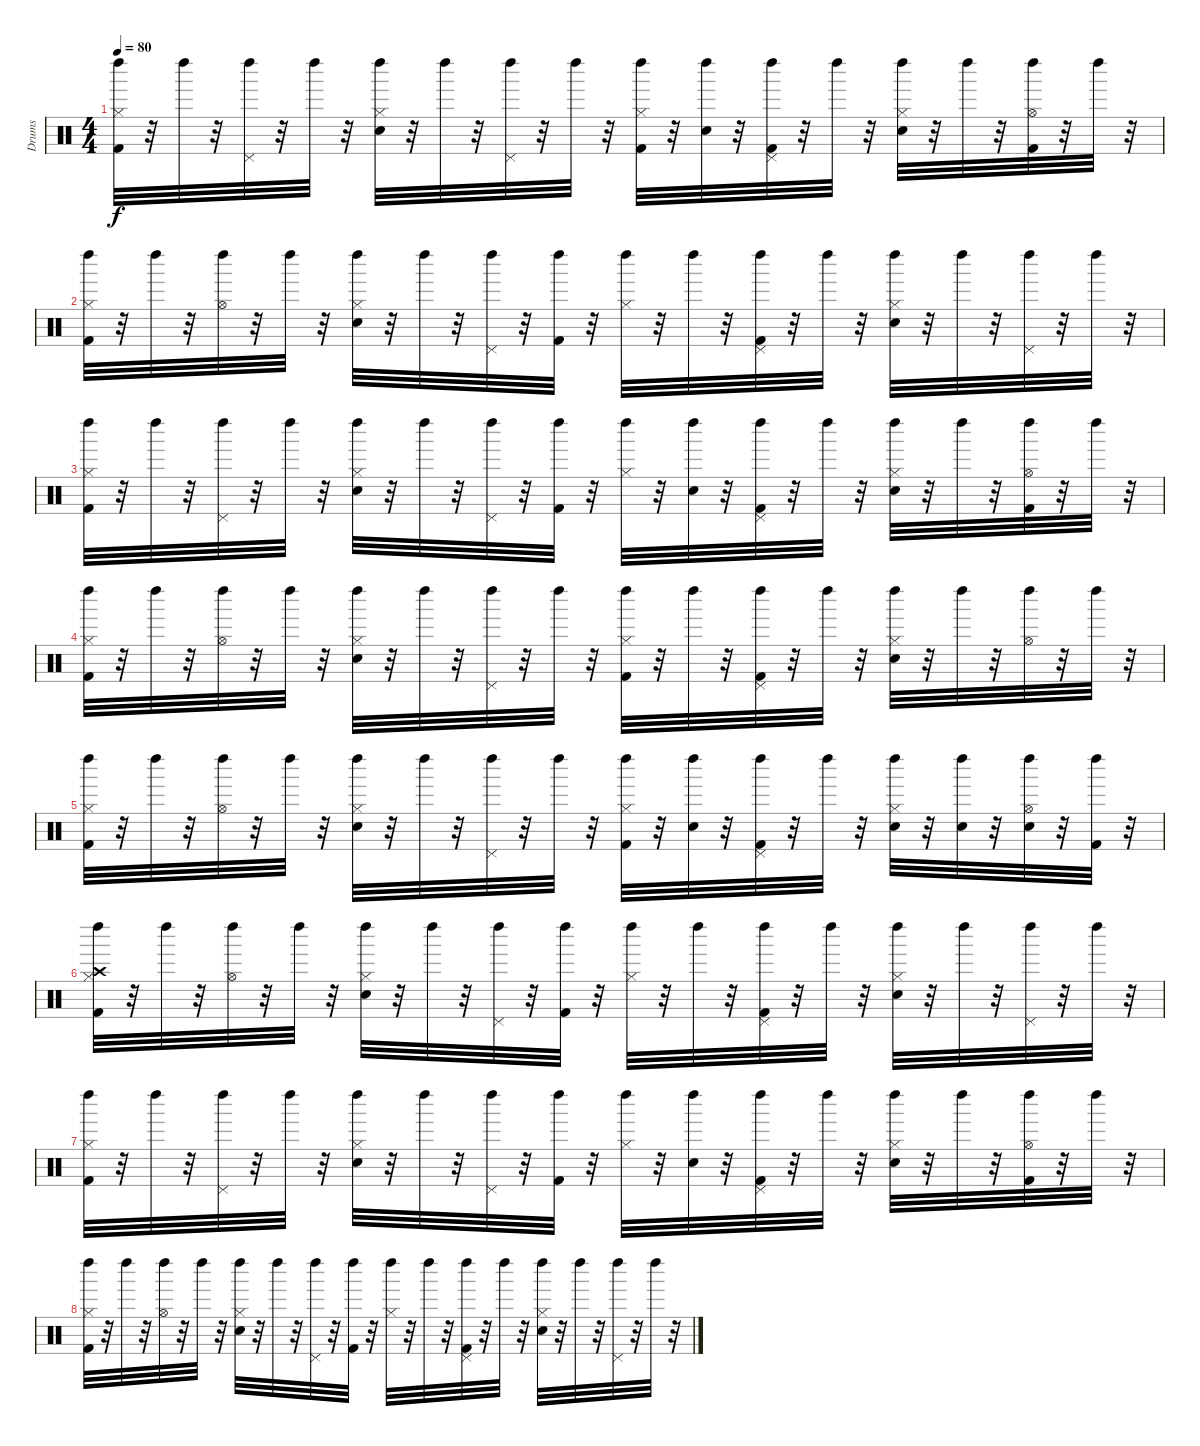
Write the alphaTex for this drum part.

\track ("Drums" "Drums") {instrument percussion}
\staff {score}
\articulation defaults
\ts (4 4)
\tempo 80
\clef neutral
\ks c
("Left Maraca (hit)" "Kick (hit) 2" "Hi-Hat (closed)").32{dy f} r.32 "Left Maraca (hit)".32 r.32 ("Left Maraca (hit)" "Pedal Hi-Hat (hit)").32 r.32 "Left Maraca (hit)".32 r.32 ("Left Maraca (hit)" "Snare (hit) 2" "Hi-Hat (closed)").32 r.32 "Left Maraca (hit)".32 r.32 ("Left Maraca (hit)" "Pedal Hi-Hat (hit)").32 r.32 "Left Maraca (hit)".32 r.32 ("Left Maraca (hit)" "Kick (hit) 2" "Hi-Hat (closed)").32 r.32 ("Left Maraca (hit)" "Snare (hit) 2").32 r.32 ("Left Maraca (hit)" "Kick (hit) 2" "Pedal Hi-Hat (hit)").32 r.32 "Left Maraca (hit)".32 r.32 ("Left Maraca (hit)" "Snare (hit) 2" "Hi-Hat (closed)").32 r.32 "Left Maraca (hit)".32 r.32 ("Left Maraca (hit)" "Hi-Hat (open)" "Kick (hit) 2").32 r.32 "Left Maraca (hit)".32 r.32 |
("Left Maraca (hit)" "Kick (hit) 2" "Hi-Hat (closed)").32 r.32 "Left Maraca (hit)".32 r.32 ("Left Maraca (hit)" "Hi-Hat (open)").32 r.32 "Left Maraca (hit)".32 r.32 ("Left Maraca (hit)" "Snare (hit) 2" "Hi-Hat (closed)").32 r.32 "Left Maraca (hit)".32 r.32 ("Left Maraca (hit)" "Pedal Hi-Hat (hit)").32 r.32 ("Left Maraca (hit)" "Kick (hit) 2").32 r.32 ("Left Maraca (hit)" "Hi-Hat (closed)").32 r.32 "Left Maraca (hit)".32 r.32 ("Left Maraca (hit)" "Kick (hit) 2" "Pedal Hi-Hat (hit)").32 r.32 "Left Maraca (hit)".32 r.32 ("Left Maraca (hit)" "Snare (hit) 2" "Hi-Hat (closed)").32 r.32 "Left Maraca (hit)".32 r.32 ("Left Maraca (hit)" "Pedal Hi-Hat (hit)").32 r.32 "Left Maraca (hit)".32 r.32 |
("Left Maraca (hit)" "Kick (hit) 2" "Hi-Hat (closed)").32 r.32 "Left Maraca (hit)".32 r.32 ("Left Maraca (hit)" "Pedal Hi-Hat (hit)").32 r.32 "Left Maraca (hit)".32 r.32 ("Left Maraca (hit)" "Snare (hit) 2" "Hi-Hat (closed)").32 r.32 "Left Maraca (hit)".32 r.32 ("Left Maraca (hit)" "Pedal Hi-Hat (hit)").32 r.32 ("Left Maraca (hit)" "Kick (hit) 2").32 r.32 ("Left Maraca (hit)" "Hi-Hat (closed)").32 r.32 ("Left Maraca (hit)" "Snare (hit) 2").32 r.32 ("Left Maraca (hit)" "Kick (hit) 2" "Pedal Hi-Hat (hit)").32 r.32 "Left Maraca (hit)".32 r.32 ("Left Maraca (hit)" "Snare (hit) 2" "Hi-Hat (closed)").32 r.32 "Left Maraca (hit)".32 r.32 ("Left Maraca (hit)" "Hi-Hat (open)" "Kick (hit) 2").32 r.32 "Left Maraca (hit)".32 r.32 |
("Left Maraca (hit)" "Kick (hit) 2" "Hi-Hat (closed)").32 r.32 "Left Maraca (hit)".32 r.32 ("Left Maraca (hit)" "Hi-Hat (open)").32 r.32 "Left Maraca (hit)".32 r.32 ("Left Maraca (hit)" "Snare (hit) 2" "Hi-Hat (closed)").32 r.32 "Left Maraca (hit)".32 r.32 ("Left Maraca (hit)" "Pedal Hi-Hat (hit)").32 r.32 "Left Maraca (hit)".32 r.32 ("Left Maraca (hit)" "Kick (hit) 2" "Hi-Hat (closed)").32 r.32 "Left Maraca (hit)".32 r.32 ("Left Maraca (hit)" "Kick (hit) 2" "Pedal Hi-Hat (hit)").32 r.32 "Left Maraca (hit)".32 r.32 ("Left Maraca (hit)" "Snare (hit) 2" "Hi-Hat (closed)").32 r.32 "Left Maraca (hit)".32 r.32 ("Left Maraca (hit)" "Hi-Hat (open)").32 r.32 "Left Maraca (hit)".32 r.32 |
("Left Maraca (hit)" "Kick (hit) 2" "Hi-Hat (closed)").32 r.32 "Left Maraca (hit)".32 r.32 ("Left Maraca (hit)" "Hi-Hat (open)").32 r.32 "Left Maraca (hit)".32 r.32 ("Left Maraca (hit)" "Snare (hit) 2" "Hi-Hat (closed)").32 r.32 "Left Maraca (hit)".32 r.32 ("Left Maraca (hit)" "Pedal Hi-Hat (hit)").32 r.32 "Left Maraca (hit)".32 r.32 ("Left Maraca (hit)" "Kick (hit) 2" "Hi-Hat (closed)").32 r.32 ("Left Maraca (hit)" "Snare (hit) 2").32 r.32 ("Left Maraca (hit)" "Kick (hit) 2" "Pedal Hi-Hat (hit)").32 r.32 "Left Maraca (hit)".32 r.32 ("Left Maraca (hit)" "Snare (hit) 2" "Hi-Hat (closed)").32 r.32 ("Left Maraca (hit)" "Snare (hit) 2").32 r.32 ("Left Maraca (hit)" "Hi-Hat (open)" "Snare (hit) 2").32 r.32 ("Left Maraca (hit)" "Kick (hit) 2").32 r.32 |
("Left Maraca (hit)" "Crash high (hit)" "Kick (hit) 2" "Hi-Hat (closed)").32 r.32 "Left Maraca (hit)".32 r.32 ("Left Maraca (hit)" "Hi-Hat (open)").32 r.32 "Left Maraca (hit)".32 r.32 ("Left Maraca (hit)" "Snare (hit) 2" "Hi-Hat (closed)").32 r.32 "Left Maraca (hit)".32 r.32 ("Left Maraca (hit)" "Pedal Hi-Hat (hit)").32 r.32 ("Left Maraca (hit)" "Kick (hit) 2").32 r.32 ("Left Maraca (hit)" "Hi-Hat (closed)").32 r.32 "Left Maraca (hit)".32 r.32 ("Left Maraca (hit)" "Kick (hit) 2" "Pedal Hi-Hat (hit)").32 r.32 "Left Maraca (hit)".32 r.32 ("Left Maraca (hit)" "Snare (hit) 2" "Hi-Hat (closed)").32 r.32 "Left Maraca (hit)".32 r.32 ("Left Maraca (hit)" "Pedal Hi-Hat (hit)").32 r.32 "Left Maraca (hit)".32 r.32 |
("Left Maraca (hit)" "Kick (hit) 2" "Hi-Hat (closed)").32 r.32 "Left Maraca (hit)".32 r.32 ("Left Maraca (hit)" "Pedal Hi-Hat (hit)").32 r.32 "Left Maraca (hit)".32 r.32 ("Left Maraca (hit)" "Snare (hit) 2" "Hi-Hat (closed)").32 r.32 "Left Maraca (hit)".32 r.32 ("Left Maraca (hit)" "Pedal Hi-Hat (hit)").32 r.32 ("Left Maraca (hit)" "Kick (hit) 2").32 r.32 ("Left Maraca (hit)" "Hi-Hat (closed)").32 r.32 ("Left Maraca (hit)" "Snare (hit) 2").32 r.32 ("Left Maraca (hit)" "Kick (hit) 2" "Pedal Hi-Hat (hit)").32 r.32 "Left Maraca (hit)".32 r.32 ("Left Maraca (hit)" "Snare (hit) 2" "Hi-Hat (closed)").32 r.32 "Left Maraca (hit)".32 r.32 ("Left Maraca (hit)" "Hi-Hat (open)" "Kick (hit) 2").32 r.32 "Left Maraca (hit)".32 r.32 |
("Left Maraca (hit)" "Kick (hit) 2" "Hi-Hat (closed)").32 r.32 "Left Maraca (hit)".32 r.32 ("Left Maraca (hit)" "Hi-Hat (open)").32 r.32 "Left Maraca (hit)".32 r.32 ("Left Maraca (hit)" "Snare (hit) 2" "Hi-Hat (closed)").32 r.32 "Left Maraca (hit)".32 r.32 ("Left Maraca (hit)" "Pedal Hi-Hat (hit)").32 r.32 ("Left Maraca (hit)" "Kick (hit) 2").32 r.32 ("Left Maraca (hit)" "Hi-Hat (closed)").32 r.32 "Left Maraca (hit)".32 r.32 ("Left Maraca (hit)" "Kick (hit) 2" "Pedal Hi-Hat (hit)").32 r.32 "Left Maraca (hit)".32 r.32 ("Left Maraca (hit)" "Snare (hit) 2" "Hi-Hat (closed)").32 r.32 "Left Maraca (hit)".32 r.32 ("Left Maraca (hit)" "Pedal Hi-Hat (hit)").32 r.32 "Left Maraca (hit)".32 r.32
